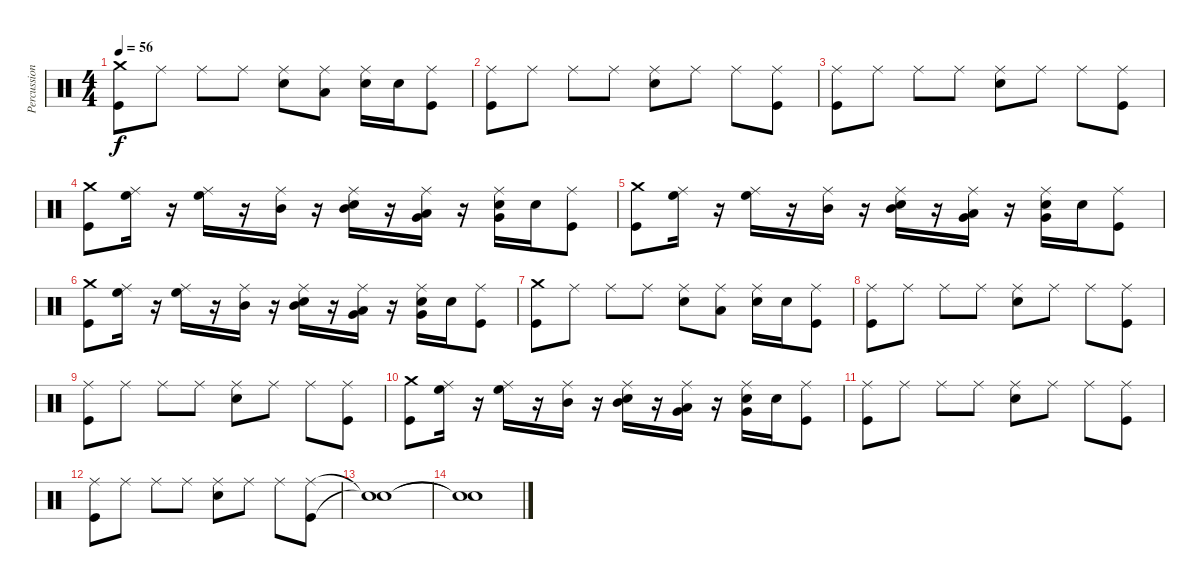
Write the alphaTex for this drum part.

\track ("Percussion" "Percussion") {instrument percussion}
\staff {score}
\articulation defaults
\ts (4 4)
\tempo 56
\clef neutral
\ks c
("Crash medium (hit)" "Kick (hit)").8{dy f} "Ride (middle)".8 "Ride (middle)".8 "Ride (middle)".8 ("Snare (hit) 2" "Ride (middle)").8 ("Low Floor Tom (hit)" "Ride (middle)").8 ("Snare (hit) 2" "Ride (middle)").16 "Snare (hit) 2".16 ("Kick (hit)" "Ride (middle)").8 |
("Ride (middle)" "Kick (hit)").8 "Ride (middle)".8 "Ride (middle)".8 "Ride (middle)".8 ("Snare (hit) 2" "Ride (middle)").8 "Ride (middle)".8 "Ride (middle)".8 ("Kick (hit)" "Ride (middle)").8 |
("Ride (middle)" "Kick (hit)").8 "Ride (middle)".8 "Ride (middle)".8 "Ride (middle)".8 ("Snare (hit) 2" "Ride (middle)").8 "Ride (middle)".8 "Ride (middle)".8 ("Kick (hit)" "Ride (middle)").8 |
("Crash medium (hit)" "Kick (hit)").8 ("High Floor Tom (hit)" "Ride (middle)").16 r.16 ("High Floor Tom (hit)" "Ride (middle)").16 r.16 ("Mid Tom (hit)" "Ride (middle)").16 r.16 ("Mid Tom (hit)" "Snare (hit) 2" "Ride (middle)").16 r.16 ("Very Low Tom (hit)" "Low Floor Tom (hit)" "Ride (middle)").16 r.16 ("Very Low Tom (hit)" "Snare (hit) 2" "Ride (middle)").16 "Snare (hit) 2".16 ("Kick (hit)" "Ride (middle)").8 |
("Crash medium (hit)" "Kick (hit)").8 ("High Floor Tom (hit)" "Ride (middle)").16 r.16 ("High Floor Tom (hit)" "Ride (middle)").16 r.16 ("Mid Tom (hit)" "Ride (middle)").16 r.16 ("Mid Tom (hit)" "Snare (hit) 2" "Ride (middle)").16 r.16 ("Very Low Tom (hit)" "Low Floor Tom (hit)" "Ride (middle)").16 r.16 ("Very Low Tom (hit)" "Snare (hit) 2" "Ride (middle)").16 "Snare (hit) 2".16 ("Kick (hit)" "Ride (middle)").8 |
("Crash medium (hit)" "Kick (hit)").8 ("High Floor Tom (hit)" "Ride (middle)").16 r.16 ("High Floor Tom (hit)" "Ride (middle)").16 r.16 ("Mid Tom (hit)" "Ride (middle)").16 r.16 ("Mid Tom (hit)" "Snare (hit) 2" "Ride (middle)").16 r.16 ("Very Low Tom (hit)" "Low Floor Tom (hit)" "Ride (middle)").16 r.16 ("Very Low Tom (hit)" "Snare (hit) 2" "Ride (middle)").16 "Snare (hit) 2".16 ("Kick (hit)" "Ride (middle)").8 |
("Crash medium (hit)" "Kick (hit)").8 "Ride (middle)".8 "Ride (middle)".8 "Ride (middle)".8 ("Snare (hit) 2" "Ride (middle)").8 ("Low Floor Tom (hit)" "Ride (middle)").8 ("Snare (hit) 2" "Ride (middle)").16 "Snare (hit) 2".16 ("Kick (hit)" "Ride (middle)").8 |
("Ride (middle)" "Kick (hit)").8 "Ride (middle)".8 "Ride (middle)".8 "Ride (middle)".8 ("Snare (hit) 2" "Ride (middle)").8 "Ride (middle)".8 "Ride (middle)".8 ("Kick (hit)" "Ride (middle)").8 |
("Ride (middle)" "Kick (hit)").8 "Ride (middle)".8 "Ride (middle)".8 "Ride (middle)".8 ("Snare (hit) 2" "Ride (middle)").8 "Ride (middle)".8 "Ride (middle)".8 ("Kick (hit)" "Ride (middle)").8 |
("Crash medium (hit)" "Kick (hit)").8 ("High Floor Tom (hit)" "Ride (middle)").16 r.16 ("High Floor Tom (hit)" "Ride (middle)").16 r.16 ("Mid Tom (hit)" "Ride (middle)").16 r.16 ("Mid Tom (hit)" "Snare (hit) 2" "Ride (middle)").16 r.16 ("Very Low Tom (hit)" "Low Floor Tom (hit)" "Ride (middle)").16 r.16 ("Very Low Tom (hit)" "Snare (hit) 2" "Ride (middle)").16 "Snare (hit) 2".16 ("Kick (hit)" "Ride (middle)").8 |
("Ride (middle)" "Kick (hit)").8 "Ride (middle)".8 "Ride (middle)".8 "Ride (middle)".8 ("Snare (hit) 2" "Ride (middle)").8 "Ride (middle)".8 "Ride (middle)".8 ("Kick (hit)" "Ride (middle)").8 |
("Ride (middle)" "Kick (hit)").8 "Ride (middle)".8 "Ride (middle)".8 "Ride (middle)".8 ("Snare (hit) 2" "Ride (middle)").8 "Ride (middle)".8 "Ride (middle)".8 ("Kick (hit)" "Ride (middle)").8 |
("Snare (hit)"{t} "Snare (hit)"{t}).1 |
("Snare (hit)"{t} "Snare (hit)"{t}).1
